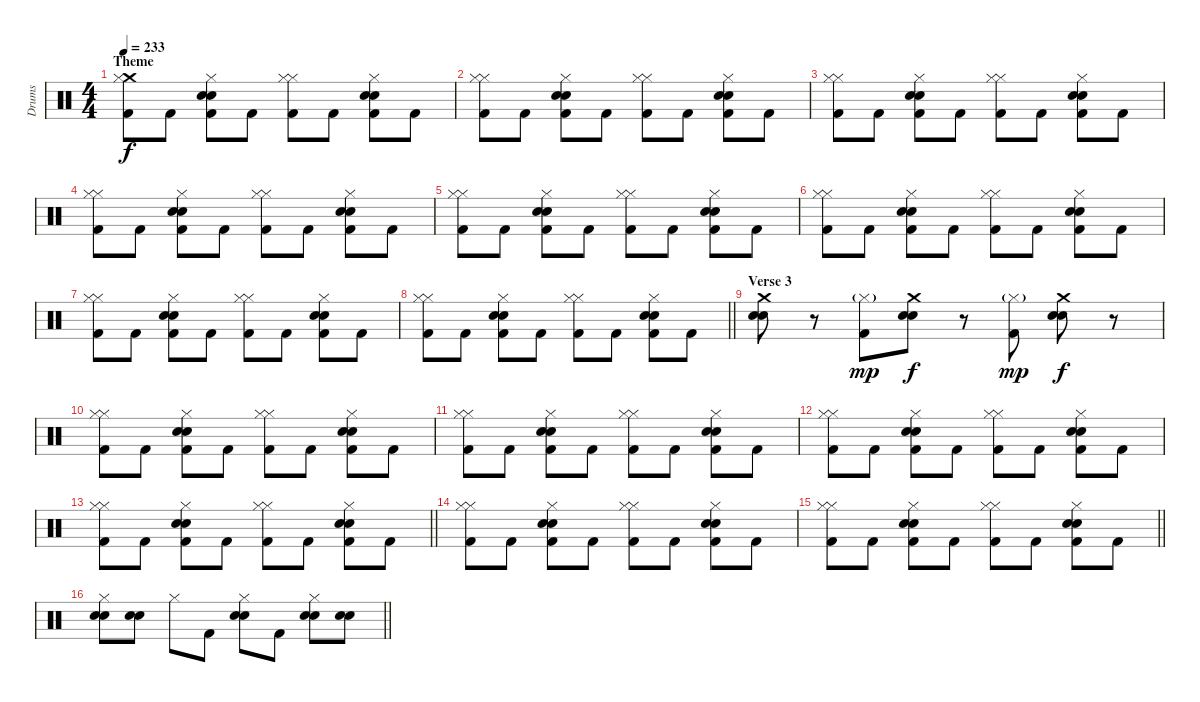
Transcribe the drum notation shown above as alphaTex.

\track ("Drums" "Drums") {instrument percussion}
\staff {score}
\articulation defaults
\ts (4 4)
\section ("" "Theme")
\tempo 233
\clef neutral
\ks c
("Crash medium (hit)" "Hi-Hat (closed)" "Kick (hit) 2").8{dy f} "Kick (hit) 2".8 ("Hi-Hat (closed)" "Snare (hit) 2" "Electric Snare (hit)" "Kick (hit) 2").8 "Kick (hit) 2".8 ("Hi-Hat (closed)" "Hi-Hat (closed)" "Kick (hit) 2").8 "Kick (hit) 2".8 ("Hi-Hat (closed)" "Snare (hit) 2" "Electric Snare (hit)" "Kick (hit) 2").8 "Kick (hit) 2".8 |
("Hi-Hat (closed)" "Hi-Hat (closed)" "Kick (hit) 2").8 "Kick (hit) 2".8 ("Hi-Hat (closed)" "Snare (hit) 2" "Electric Snare (hit)" "Kick (hit) 2").8 "Kick (hit) 2".8 ("Hi-Hat (closed)" "Hi-Hat (closed)" "Kick (hit) 2").8 "Kick (hit) 2".8 ("Hi-Hat (closed)" "Snare (hit) 2" "Electric Snare (hit)" "Kick (hit) 2").8 "Kick (hit) 2".8 |
("Hi-Hat (closed)" "Hi-Hat (closed)" "Kick (hit) 2").8 "Kick (hit) 2".8 ("Hi-Hat (closed)" "Snare (hit) 2" "Electric Snare (hit)" "Kick (hit) 2").8 "Kick (hit) 2".8 ("Hi-Hat (closed)" "Hi-Hat (closed)" "Kick (hit) 2").8 "Kick (hit) 2".8 ("Hi-Hat (closed)" "Snare (hit) 2" "Electric Snare (hit)" "Kick (hit) 2").8 "Kick (hit) 2".8 |
("Hi-Hat (closed)" "Hi-Hat (closed)" "Kick (hit) 2").8 "Kick (hit) 2".8 ("Hi-Hat (closed)" "Snare (hit) 2" "Electric Snare (hit)" "Kick (hit) 2").8 "Kick (hit) 2".8 ("Hi-Hat (closed)" "Hi-Hat (closed)" "Kick (hit) 2").8 "Kick (hit) 2".8 ("Hi-Hat (closed)" "Snare (hit) 2" "Electric Snare (hit)" "Kick (hit) 2").8 "Kick (hit) 2".8 |
("Hi-Hat (closed)" "Hi-Hat (closed)" "Kick (hit) 2").8 "Kick (hit) 2".8 ("Hi-Hat (closed)" "Snare (hit) 2" "Electric Snare (hit)" "Kick (hit) 2").8 "Kick (hit) 2".8 ("Hi-Hat (closed)" "Hi-Hat (closed)" "Kick (hit) 2").8 "Kick (hit) 2".8 ("Hi-Hat (closed)" "Snare (hit) 2" "Electric Snare (hit)" "Kick (hit) 2").8 "Kick (hit) 2".8 |
("Hi-Hat (closed)" "Hi-Hat (closed)" "Kick (hit) 2").8 "Kick (hit) 2".8 ("Hi-Hat (closed)" "Snare (hit) 2" "Electric Snare (hit)" "Kick (hit) 2").8 "Kick (hit) 2".8 ("Hi-Hat (closed)" "Hi-Hat (closed)" "Kick (hit) 2").8 "Kick (hit) 2".8 ("Hi-Hat (closed)" "Snare (hit) 2" "Electric Snare (hit)" "Kick (hit) 2").8 "Kick (hit) 2".8 |
("Hi-Hat (closed)" "Hi-Hat (closed)" "Kick (hit) 2").8 "Kick (hit) 2".8 ("Hi-Hat (closed)" "Snare (hit) 2" "Electric Snare (hit)" "Kick (hit) 2").8 "Kick (hit) 2".8 ("Hi-Hat (closed)" "Hi-Hat (closed)" "Kick (hit) 2").8 "Kick (hit) 2".8 ("Hi-Hat (closed)" "Snare (hit) 2" "Electric Snare (hit)" "Kick (hit) 2").8 "Kick (hit) 2".8 |
\barLineRight lightlight
("Hi-Hat (closed)" "Hi-Hat (closed)" "Kick (hit) 2").8 "Kick (hit) 2".8 ("Hi-Hat (closed)" "Snare (hit) 2" "Electric Snare (hit)" "Kick (hit) 2").8 "Kick (hit) 2".8 ("Hi-Hat (closed)" "Hi-Hat (closed)" "Kick (hit) 2").8 "Kick (hit) 2".8 ("Hi-Hat (closed)" "Snare (hit) 2" "Electric Snare (hit)" "Kick (hit) 2").8 "Kick (hit) 2".8 |
\section ("" "Verse 3")
("Crash medium (hit)" "Snare (hit) 2" "Electric Snare (hit)").8 r.8 ("Hi-Hat (closed)"{g} "Kick (hit) 2").8{dy mp} ("Crash medium (hit)" "Snare (hit) 2" "Electric Snare (hit)").8{dy f} r.8 ("Hi-Hat (closed)"{g} "Kick (hit) 2").8{dy mp} ("Crash medium (hit)" "Snare (hit) 2" "Electric Snare (hit)").8{dy f} r.8 |
("Hi-Hat (closed)" "Hi-Hat (closed)" "Kick (hit) 2").8 "Kick (hit) 2".8 ("Hi-Hat (closed)" "Snare (hit) 2" "Electric Snare (hit)" "Kick (hit) 2").8 "Kick (hit) 2".8 ("Hi-Hat (closed)" "Hi-Hat (closed)" "Kick (hit) 2").8 "Kick (hit) 2".8 ("Hi-Hat (closed)" "Snare (hit) 2" "Electric Snare (hit)" "Kick (hit) 2").8 "Kick (hit) 2".8 |
("Hi-Hat (closed)" "Hi-Hat (closed)" "Kick (hit) 2").8 "Kick (hit) 2".8 ("Hi-Hat (closed)" "Snare (hit) 2" "Electric Snare (hit)" "Kick (hit) 2").8 "Kick (hit) 2".8 ("Hi-Hat (closed)" "Hi-Hat (closed)" "Kick (hit) 2").8 "Kick (hit) 2".8 ("Hi-Hat (closed)" "Snare (hit) 2" "Electric Snare (hit)" "Kick (hit) 2").8 "Kick (hit) 2".8 |
("Hi-Hat (closed)" "Hi-Hat (closed)" "Kick (hit) 2").8 "Kick (hit) 2".8 ("Hi-Hat (closed)" "Snare (hit) 2" "Electric Snare (hit)" "Kick (hit) 2").8 "Kick (hit) 2".8 ("Hi-Hat (closed)" "Hi-Hat (closed)" "Kick (hit) 2").8 "Kick (hit) 2".8 ("Hi-Hat (closed)" "Snare (hit) 2" "Electric Snare (hit)" "Kick (hit) 2").8 "Kick (hit) 2".8 |
\barLineRight lightlight
("Hi-Hat (closed)" "Hi-Hat (closed)" "Kick (hit) 2").8 "Kick (hit) 2".8 ("Hi-Hat (closed)" "Snare (hit) 2" "Electric Snare (hit)" "Kick (hit) 2").8 "Kick (hit) 2".8 ("Hi-Hat (closed)" "Hi-Hat (closed)" "Kick (hit) 2").8 "Kick (hit) 2".8 ("Hi-Hat (closed)" "Snare (hit) 2" "Electric Snare (hit)" "Kick (hit) 2").8 "Kick (hit) 2".8 |
("Hi-Hat (closed)" "Hi-Hat (closed)" "Kick (hit) 2").8 "Kick (hit) 2".8 ("Hi-Hat (closed)" "Snare (hit) 2" "Electric Snare (hit)" "Kick (hit) 2").8 "Kick (hit) 2".8 ("Hi-Hat (closed)" "Hi-Hat (closed)" "Kick (hit) 2").8 "Kick (hit) 2".8 ("Hi-Hat (closed)" "Snare (hit) 2" "Electric Snare (hit)" "Kick (hit) 2").8 "Kick (hit) 2".8 |
\barLineRight lightlight
("Hi-Hat (closed)" "Hi-Hat (closed)" "Kick (hit) 2").8 "Kick (hit) 2".8 ("Hi-Hat (closed)" "Snare (hit) 2" "Electric Snare (hit)" "Kick (hit) 2").8 "Kick (hit) 2".8 ("Hi-Hat (closed)" "Hi-Hat (closed)" "Kick (hit) 2").8 "Kick (hit) 2".8 ("Hi-Hat (closed)" "Snare (hit) 2" "Electric Snare (hit)" "Kick (hit) 2").8 "Kick (hit) 2".8 |
\barLineRight lightlight
("Hi-Hat (closed)" "Snare (hit) 2" "Electric Snare (hit)").8 ("Snare (hit) 2" "Electric Snare (hit)").8 "Hi-Hat (closed)".8 "Kick (hit) 2".8 ("Hi-Hat (closed)" "Snare (hit) 2" "Electric Snare (hit)").8 "Kick (hit) 2".8 ("Hi-Hat (closed)" "Snare (hit) 2" "Electric Snare (hit)").8 ("Snare (hit) 2" "Electric Snare (hit)").8
